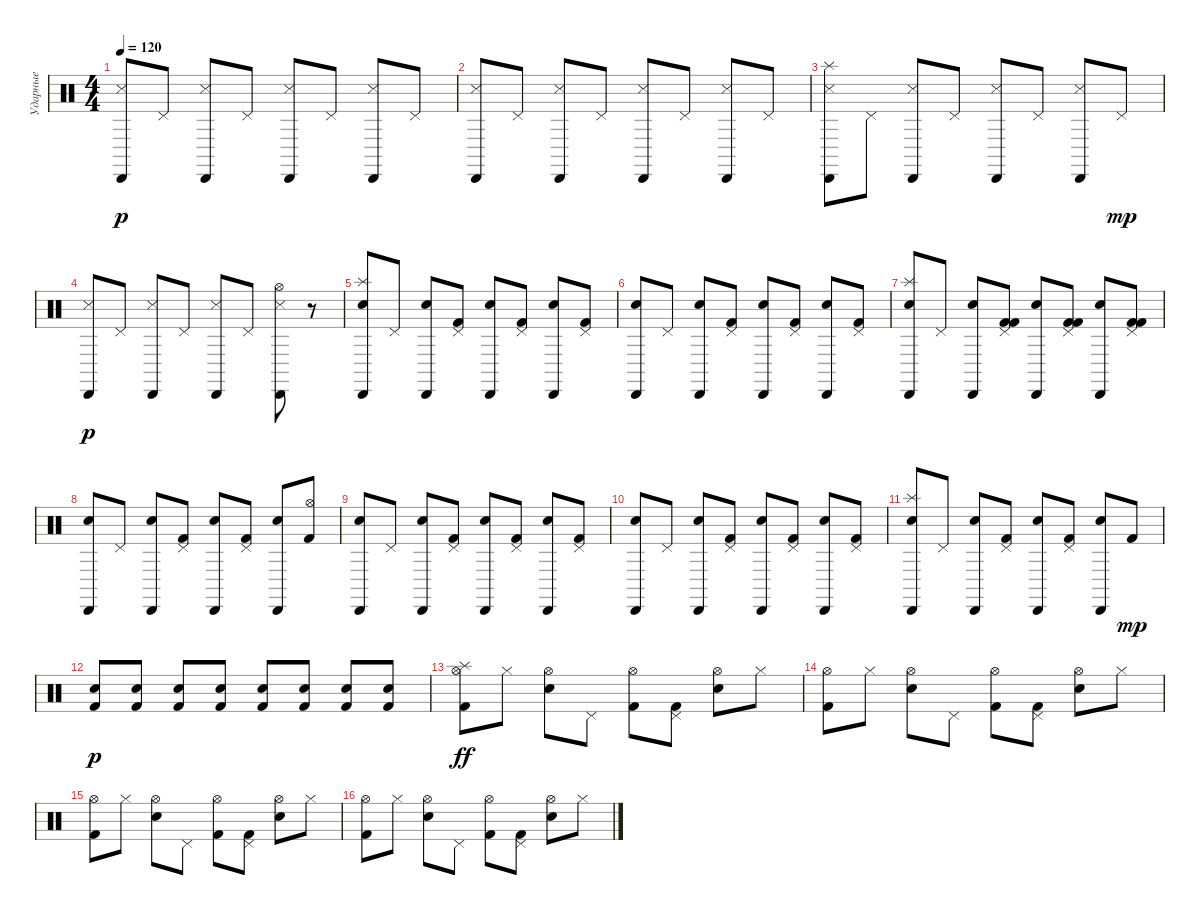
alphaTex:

\track ("Ударные" "Ударные") {instrument percussion}
\staff {score}
\articulation defaults
\ts (4 4)
\tempo 120
\clef neutral
\ks c
("Snare (side stick) 3" "Cabasa (hit)").8{dy p} "Pedal Hi-Hat (hit)".8 ("Snare (side stick) 3" "Cabasa (hit)").8 "Pedal Hi-Hat (hit)".8 ("Snare (side stick) 3" "Cabasa (hit)").8 "Pedal Hi-Hat (hit)".8 ("Snare (side stick) 3" "Cabasa (hit)").8 "Pedal Hi-Hat (hit)".8 |
("Snare (side stick) 3" "Cabasa (hit)").8 "Pedal Hi-Hat (hit)".8 ("Snare (side stick) 3" "Cabasa (hit)").8 "Pedal Hi-Hat (hit)".8 ("Snare (side stick) 3" "Cabasa (hit)").8 "Pedal Hi-Hat (hit)".8 ("Snare (side stick) 3" "Cabasa (hit)").8 "Pedal Hi-Hat (hit)".8 |
("Splash (hit)" "Snare (side stick) 3" "Cabasa (hit)").8 "Pedal Hi-Hat (hit)".8 ("Snare (side stick) 3" "Cabasa (hit)").8 "Pedal Hi-Hat (hit)".8 ("Snare (side stick) 3" "Cabasa (hit)").8 "Pedal Hi-Hat (hit)".8 ("Snare (side stick) 3" "Cabasa (hit)").8 "Pedal Hi-Hat (hit)".8{dy mp} |
("Snare (side stick) 3" "Cabasa (hit)").8{dy p} "Pedal Hi-Hat (hit)".8 ("Snare (side stick) 3" "Cabasa (hit)").8 "Pedal Hi-Hat (hit)".8 ("Snare (side stick) 3" "Cabasa (hit)").8 "Pedal Hi-Hat (hit)".8 ("Snare (side stick) 3" "Hi-Hat (open)" "Cabasa (hit)").8 r.8 |
("Electric Snare (hit)" "Splash (hit)" "Cabasa (hit)").8 "Pedal Hi-Hat (hit)".8 ("Electric Snare (hit)" "Cabasa (hit)").8 ("Kick (hit) 2" "Pedal Hi-Hat (hit)").8 ("Electric Snare (hit)" "Cabasa (hit)").8 ("Kick (hit) 2" "Pedal Hi-Hat (hit)").8 ("Electric Snare (hit)" "Cabasa (hit)").8 ("Kick (hit) 2" "Pedal Hi-Hat (hit)").8 |
("Electric Snare (hit)" "Cabasa (hit)").8 "Pedal Hi-Hat (hit)".8 ("Electric Snare (hit)" "Cabasa (hit)").8 ("Kick (hit) 2" "Pedal Hi-Hat (hit)").8 ("Electric Snare (hit)" "Cabasa (hit)").8 ("Kick (hit) 2" "Pedal Hi-Hat (hit)").8 ("Electric Snare (hit)" "Cabasa (hit)").8 ("Kick (hit) 2" "Pedal Hi-Hat (hit)").8 |
("Splash (hit)" "Electric Snare (hit)" "Cabasa (hit)").8 "Pedal Hi-Hat (hit)".8 ("Electric Snare (hit)" "Cabasa (hit)").8 ("Kick (hit) 2" "Kick (hit) 2" "Pedal Hi-Hat (hit)").8 ("Electric Snare (hit)" "Cabasa (hit)").8 ("Kick (hit) 2" "Kick (hit) 2" "Pedal Hi-Hat (hit)").8 ("Electric Snare (hit)" "Cabasa (hit)").8 ("Kick (hit) 2" "Kick (hit) 2" "Pedal Hi-Hat (hit)").8 |
("Electric Snare (hit)" "Cabasa (hit)").8 "Pedal Hi-Hat (hit)".8 ("Electric Snare (hit)" "Cabasa (hit)").8 ("Kick (hit) 2" "Pedal Hi-Hat (hit)").8 ("Electric Snare (hit)" "Cabasa (hit)").8 ("Kick (hit) 2" "Pedal Hi-Hat (hit)").8 ("Electric Snare (hit)" "Cabasa (hit)").8 ("Kick (hit) 2" "Hi-Hat (open)").8 |
("Electric Snare (hit)" "Cabasa (hit)").8 "Pedal Hi-Hat (hit)".8 ("Electric Snare (hit)" "Cabasa (hit)").8 ("Kick (hit) 2" "Pedal Hi-Hat (hit)").8 ("Electric Snare (hit)" "Cabasa (hit)").8 ("Kick (hit) 2" "Pedal Hi-Hat (hit)").8 ("Electric Snare (hit)" "Cabasa (hit)").8 ("Kick (hit) 2" "Pedal Hi-Hat (hit)").8 |
("Electric Snare (hit)" "Cabasa (hit)").8 "Pedal Hi-Hat (hit)".8 ("Electric Snare (hit)" "Cabasa (hit)").8 ("Kick (hit) 2" "Pedal Hi-Hat (hit)").8 ("Electric Snare (hit)" "Cabasa (hit)").8 ("Kick (hit) 2" "Pedal Hi-Hat (hit)").8 ("Electric Snare (hit)" "Cabasa (hit)").8 ("Kick (hit) 2" "Pedal Hi-Hat (hit)").8 |
("Splash (hit)" "Electric Snare (hit)" "Cabasa (hit)").8 "Pedal Hi-Hat (hit)".8 ("Electric Snare (hit)" "Cabasa (hit)").8 ("Kick (hit) 2" "Pedal Hi-Hat (hit)").8 ("Electric Snare (hit)" "Cabasa (hit)").8 ("Kick (hit) 2" "Pedal Hi-Hat (hit)").8 ("Electric Snare (hit)" "Cabasa (hit)").8 "Kick (hit) 2".8{dy mp} |
("Kick (hit) 2" "Electric Snare (hit)").8{dy p} ("Kick (hit) 2" "Electric Snare (hit)").8 ("Kick (hit) 2" "Electric Snare (hit)").8 ("Kick (hit) 2" "Electric Snare (hit)").8 ("Kick (hit) 2" "Electric Snare (hit)").8 ("Kick (hit) 2" "Electric Snare (hit)").8 ("Kick (hit) 2" "Electric Snare (hit)").8 ("Kick (hit) 2" "Electric Snare (hit)").8 |
("Hi-Hat (open)" "Splash (hit)" "Kick (hit) 2").8{dy ff} "Hi-Hat (closed)".8 ("Hi-Hat (open)" "Electric Snare (hit)").8 "Pedal Hi-Hat (hit)".8 ("Hi-Hat (open)" "Kick (hit) 2").8 ("Pedal Hi-Hat (hit)" "Kick (hit) 2").8 ("Hi-Hat (open)" "Electric Snare (hit)").8 "Hi-Hat (closed)".8 |
("Hi-Hat (open)" "Kick (hit) 2").8 "Hi-Hat (closed)".8 ("Hi-Hat (open)" "Electric Snare (hit)").8 "Pedal Hi-Hat (hit)".8 ("Hi-Hat (open)" "Kick (hit) 2").8 ("Pedal Hi-Hat (hit)" "Kick (hit) 2").8 ("Hi-Hat (open)" "Electric Snare (hit)").8 "Hi-Hat (closed)".8 |
("Hi-Hat (open)" "Kick (hit) 2").8 "Hi-Hat (closed)".8 ("Hi-Hat (open)" "Electric Snare (hit)").8 "Pedal Hi-Hat (hit)".8 ("Hi-Hat (open)" "Kick (hit) 2").8 ("Pedal Hi-Hat (hit)" "Kick (hit) 2").8 ("Hi-Hat (open)" "Electric Snare (hit)").8 "Hi-Hat (closed)".8 |
("Hi-Hat (open)" "Kick (hit) 2").8 "Hi-Hat (closed)".8 ("Hi-Hat (open)" "Electric Snare (hit)").8 "Pedal Hi-Hat (hit)".8 ("Hi-Hat (open)" "Kick (hit) 2").8 ("Pedal Hi-Hat (hit)" "Kick (hit) 2").8 ("Hi-Hat (open)" "Electric Snare (hit)").8 "Hi-Hat (closed)".8
